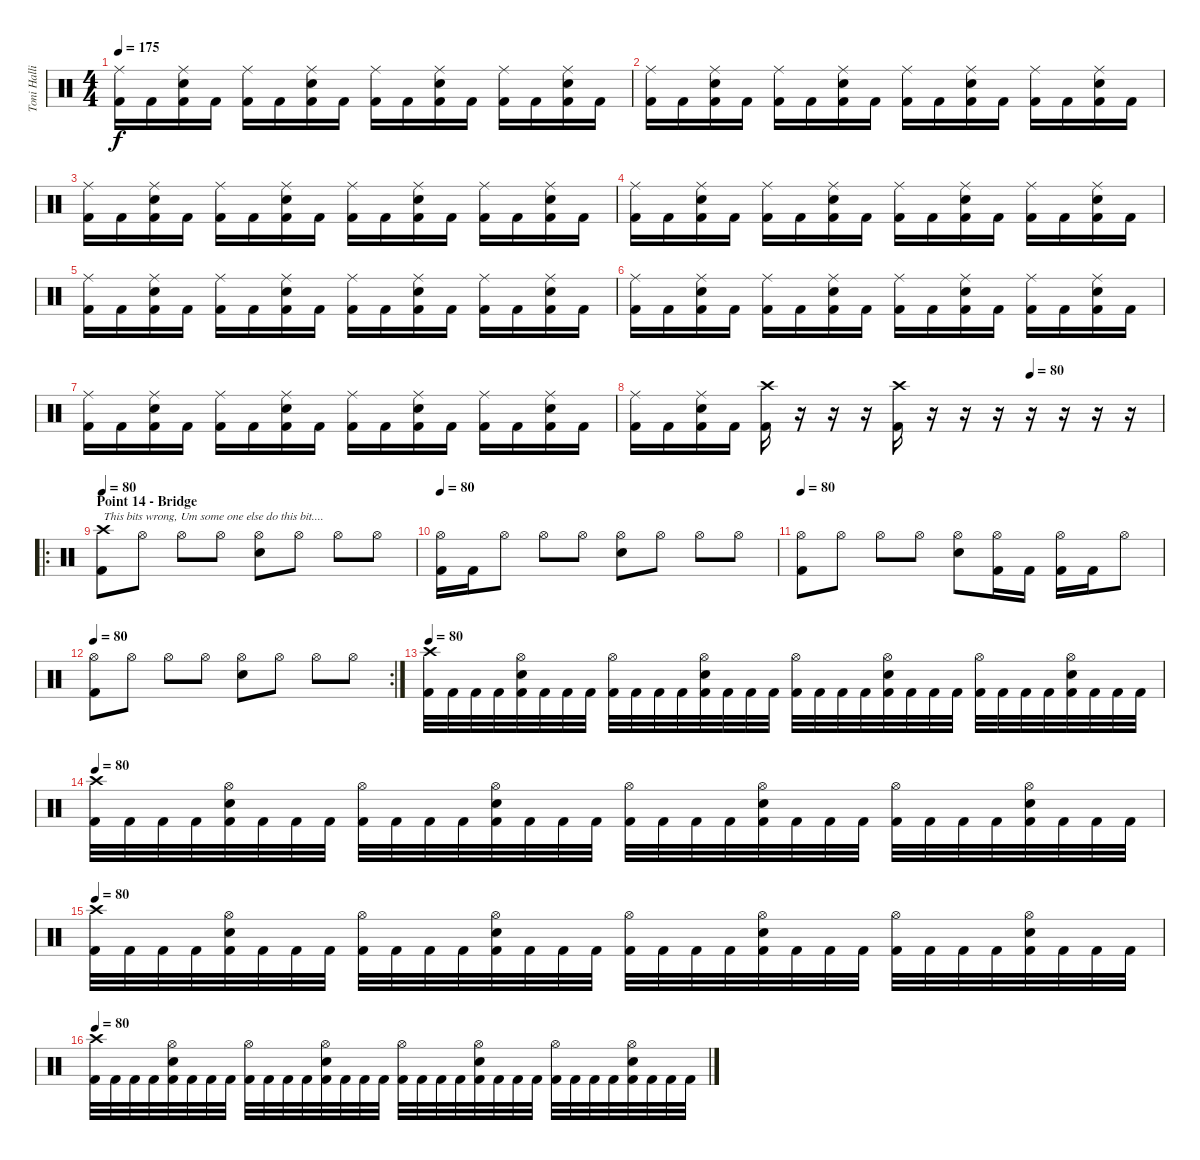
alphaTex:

\track ("Toni Hallio" "Toni Halli") {instrument percussion}
\staff {score}
\articulation defaults
\ts (4 4)
\tempo 175
\clef neutral
\ks c
("Ride (middle)" "Kick (hit) 2").16{dy f} "Kick (hit) 2".16 ("Ride (middle)" "Snare (hit) 2" "Kick (hit) 2").16 "Kick (hit) 2".16 ("Ride (middle)" "Kick (hit) 2").16 "Kick (hit) 2".16 ("Ride (middle)" "Snare (hit) 2" "Kick (hit) 2").16 "Kick (hit) 2".16 ("Ride (middle)" "Kick (hit) 2").16 "Kick (hit) 2".16 ("Ride (middle)" "Snare (hit) 2" "Kick (hit) 2").16 "Kick (hit) 2".16 ("Ride (middle)" "Kick (hit) 2").16 "Kick (hit) 2".16 ("Ride (middle)" "Snare (hit) 2" "Kick (hit) 2").16 "Kick (hit) 2".16 |
("Ride (middle)" "Kick (hit) 2").16 "Kick (hit) 2".16 ("Ride (middle)" "Snare (hit) 2" "Kick (hit) 2").16 "Kick (hit) 2".16 ("Ride (middle)" "Kick (hit) 2").16 "Kick (hit) 2".16 ("Ride (middle)" "Snare (hit) 2" "Kick (hit) 2").16 "Kick (hit) 2".16 ("Ride (middle)" "Kick (hit) 2").16 "Kick (hit) 2".16 ("Ride (middle)" "Snare (hit) 2" "Kick (hit) 2").16 "Kick (hit) 2".16 ("Ride (middle)" "Kick (hit) 2").16 "Kick (hit) 2".16 ("Ride (middle)" "Snare (hit) 2" "Kick (hit) 2").16 "Kick (hit) 2".16 |
("Ride (middle)" "Kick (hit) 2").16 "Kick (hit) 2".16 ("Ride (middle)" "Snare (hit) 2" "Kick (hit) 2").16 "Kick (hit) 2".16 ("Ride (middle)" "Kick (hit) 2").16 "Kick (hit) 2".16 ("Ride (middle)" "Snare (hit) 2" "Kick (hit) 2").16 "Kick (hit) 2".16 ("Ride (middle)" "Kick (hit) 2").16 "Kick (hit) 2".16 ("Ride (middle)" "Snare (hit) 2" "Kick (hit) 2").16 "Kick (hit) 2".16 ("Ride (middle)" "Kick (hit) 2").16 "Kick (hit) 2".16 ("Ride (middle)" "Snare (hit) 2" "Kick (hit) 2").16 "Kick (hit) 2".16 |
("Ride (middle)" "Kick (hit) 2").16 "Kick (hit) 2".16 ("Ride (middle)" "Snare (hit) 2" "Kick (hit) 2").16 "Kick (hit) 2".16 ("Ride (middle)" "Kick (hit) 2").16 "Kick (hit) 2".16 ("Ride (middle)" "Snare (hit) 2" "Kick (hit) 2").16 "Kick (hit) 2".16 ("Ride (middle)" "Kick (hit) 2").16 "Kick (hit) 2".16 ("Ride (middle)" "Snare (hit) 2" "Kick (hit) 2").16 "Kick (hit) 2".16 ("Ride (middle)" "Kick (hit) 2").16 "Kick (hit) 2".16 ("Ride (middle)" "Snare (hit) 2" "Kick (hit) 2").16 "Kick (hit) 2".16 |
("Ride (middle)" "Kick (hit) 2").16 "Kick (hit) 2".16 ("Ride (middle)" "Snare (hit) 2" "Kick (hit) 2").16 "Kick (hit) 2".16 ("Ride (middle)" "Kick (hit) 2").16 "Kick (hit) 2".16 ("Ride (middle)" "Snare (hit) 2" "Kick (hit) 2").16 "Kick (hit) 2".16 ("Ride (middle)" "Kick (hit) 2").16 "Kick (hit) 2".16 ("Ride (middle)" "Snare (hit) 2" "Kick (hit) 2").16 "Kick (hit) 2".16 ("Ride (middle)" "Kick (hit) 2").16 "Kick (hit) 2".16 ("Ride (middle)" "Snare (hit) 2" "Kick (hit) 2").16 "Kick (hit) 2".16 |
("Ride (middle)" "Kick (hit) 2").16 "Kick (hit) 2".16 ("Ride (middle)" "Snare (hit) 2" "Kick (hit) 2").16 "Kick (hit) 2".16 ("Ride (middle)" "Kick (hit) 2").16 "Kick (hit) 2".16 ("Ride (middle)" "Snare (hit) 2" "Kick (hit) 2").16 "Kick (hit) 2".16 ("Ride (middle)" "Kick (hit) 2").16 "Kick (hit) 2".16 ("Ride (middle)" "Snare (hit) 2" "Kick (hit) 2").16 "Kick (hit) 2".16 ("Ride (middle)" "Kick (hit) 2").16 "Kick (hit) 2".16 ("Ride (middle)" "Snare (hit) 2" "Kick (hit) 2").16 "Kick (hit) 2".16 |
("Ride (middle)" "Kick (hit) 2").16 "Kick (hit) 2".16 ("Ride (middle)" "Snare (hit) 2" "Kick (hit) 2").16 "Kick (hit) 2".16 ("Ride (middle)" "Kick (hit) 2").16 "Kick (hit) 2".16 ("Ride (middle)" "Snare (hit) 2" "Kick (hit) 2").16 "Kick (hit) 2".16 ("Ride (middle)" "Kick (hit) 2").16 "Kick (hit) 2".16 ("Ride (middle)" "Snare (hit) 2" "Kick (hit) 2").16 "Kick (hit) 2".16 ("Ride (middle)" "Kick (hit) 2").16 "Kick (hit) 2".16 ("Ride (middle)" "Snare (hit) 2" "Kick (hit) 2").16 "Kick (hit) 2".16 |
\tempo (80 0.75)
("Ride (middle)" "Kick (hit) 2").16 "Kick (hit) 2".16 ("Ride (middle)" "Snare (hit) 2" "Kick (hit) 2").16 "Kick (hit) 2".16 ("Crash high (hit)" "Kick (hit) 2").16 r.16 r.16 r.16 ("Crash high (hit)" "Kick (hit) 2").16 r.16 r.16 r.16 r.16 r.16 r.16 r.16 |
\ro
\section ("" "Point 14 - Bridge")
\tempo 80
("Crash high (hit)" "Kick (hit) 2").8{txt "This bits wrong, Um some one else do this bit...."} "Hi-Hat (open)".8 "Hi-Hat (open)".8 "Hi-Hat (open)".8 ("Hi-Hat (open)" "Snare (hit) 2").8 "Hi-Hat (open)".8 "Hi-Hat (open)".8 "Hi-Hat (open)".8 |
\tempo 80
("Hi-Hat (open)" "Kick (hit) 2").16 "Kick (hit) 2".16 "Hi-Hat (open)".8 "Hi-Hat (open)".8 "Hi-Hat (open)".8 ("Hi-Hat (open)" "Snare (hit) 2").8 "Hi-Hat (open)".8 "Hi-Hat (open)".8 "Hi-Hat (open)".8 |
\tempo 80
("Hi-Hat (open)" "Kick (hit) 2").8 "Hi-Hat (open)".8 "Hi-Hat (open)".8 "Hi-Hat (open)".8 ("Hi-Hat (open)" "Snare (hit) 2").8 ("Hi-Hat (open)" "Kick (hit) 2").16 "Kick (hit) 2".16 ("Hi-Hat (open)" "Kick (hit) 2").16 "Kick (hit) 2".16 "Hi-Hat (open)".8 |
\rc 2
\tempo 80
("Hi-Hat (open)" "Kick (hit) 2").8 "Hi-Hat (open)".8 "Hi-Hat (open)".8 "Hi-Hat (open)".8 ("Hi-Hat (open)" "Snare (hit) 2").8 "Hi-Hat (open)".8 "Hi-Hat (open)".8 "Hi-Hat (open)".8 |
\tempo 80
("Crash high (hit)" "Kick (hit) 2").32 "Kick (hit) 2".32 "Kick (hit) 2".32 "Kick (hit) 2".32 ("Hi-Hat (open)" "Snare (hit) 2" "Kick (hit) 2").32 "Kick (hit) 2".32 "Kick (hit) 2".32 "Kick (hit) 2".32 ("Hi-Hat (open)" "Kick (hit) 2").32 "Kick (hit) 2".32 "Kick (hit) 2".32 "Kick (hit) 2".32 ("Hi-Hat (open)" "Snare (hit) 2" "Kick (hit) 2").32 "Kick (hit) 2".32 "Kick (hit) 2".32 "Kick (hit) 2".32 ("Hi-Hat (open)" "Kick (hit) 2").32 "Kick (hit) 2".32 "Kick (hit) 2".32 "Kick (hit) 2".32 ("Hi-Hat (open)" "Snare (hit) 2" "Kick (hit) 2").32 "Kick (hit) 2".32 "Kick (hit) 2".32 "Kick (hit) 2".32 ("Hi-Hat (open)" "Kick (hit) 2").32 "Kick (hit) 2".32 "Kick (hit) 2".32 "Kick (hit) 2".32 ("Hi-Hat (open)" "Snare (hit) 2" "Kick (hit) 2").32 "Kick (hit) 2".32 "Kick (hit) 2".32 "Kick (hit) 2".32 |
\tempo 80
("Crash high (hit)" "Kick (hit) 2").32 "Kick (hit) 2".32 "Kick (hit) 2".32 "Kick (hit) 2".32 ("Hi-Hat (open)" "Snare (hit) 2" "Kick (hit) 2").32 "Kick (hit) 2".32 "Kick (hit) 2".32 "Kick (hit) 2".32 ("Hi-Hat (open)" "Kick (hit) 2").32 "Kick (hit) 2".32 "Kick (hit) 2".32 "Kick (hit) 2".32 ("Hi-Hat (open)" "Snare (hit) 2" "Kick (hit) 2").32 "Kick (hit) 2".32 "Kick (hit) 2".32 "Kick (hit) 2".32 ("Hi-Hat (open)" "Kick (hit) 2").32 "Kick (hit) 2".32 "Kick (hit) 2".32 "Kick (hit) 2".32 ("Hi-Hat (open)" "Snare (hit) 2" "Kick (hit) 2").32 "Kick (hit) 2".32 "Kick (hit) 2".32 "Kick (hit) 2".32 ("Hi-Hat (open)" "Kick (hit) 2").32 "Kick (hit) 2".32 "Kick (hit) 2".32 "Kick (hit) 2".32 ("Hi-Hat (open)" "Snare (hit) 2" "Kick (hit) 2").32 "Kick (hit) 2".32 "Kick (hit) 2".32 "Kick (hit) 2".32 |
\tempo 80
("Crash high (hit)" "Kick (hit) 2").32 "Kick (hit) 2".32 "Kick (hit) 2".32 "Kick (hit) 2".32 ("Hi-Hat (open)" "Snare (hit) 2" "Kick (hit) 2").32 "Kick (hit) 2".32 "Kick (hit) 2".32 "Kick (hit) 2".32 ("Hi-Hat (open)" "Kick (hit) 2").32 "Kick (hit) 2".32 "Kick (hit) 2".32 "Kick (hit) 2".32 ("Hi-Hat (open)" "Snare (hit) 2" "Kick (hit) 2").32 "Kick (hit) 2".32 "Kick (hit) 2".32 "Kick (hit) 2".32 ("Hi-Hat (open)" "Kick (hit) 2").32 "Kick (hit) 2".32 "Kick (hit) 2".32 "Kick (hit) 2".32 ("Hi-Hat (open)" "Snare (hit) 2" "Kick (hit) 2").32 "Kick (hit) 2".32 "Kick (hit) 2".32 "Kick (hit) 2".32 ("Hi-Hat (open)" "Kick (hit) 2").32 "Kick (hit) 2".32 "Kick (hit) 2".32 "Kick (hit) 2".32 ("Hi-Hat (open)" "Snare (hit) 2" "Kick (hit) 2").32 "Kick (hit) 2".32 "Kick (hit) 2".32 "Kick (hit) 2".32 |
\tempo 80
("Crash high (hit)" "Kick (hit) 2").32 "Kick (hit) 2".32 "Kick (hit) 2".32 "Kick (hit) 2".32 ("Hi-Hat (open)" "Snare (hit) 2" "Kick (hit) 2").32 "Kick (hit) 2".32 "Kick (hit) 2".32 "Kick (hit) 2".32 ("Hi-Hat (open)" "Kick (hit) 2").32 "Kick (hit) 2".32 "Kick (hit) 2".32 "Kick (hit) 2".32 ("Hi-Hat (open)" "Snare (hit) 2" "Kick (hit) 2").32 "Kick (hit) 2".32 "Kick (hit) 2".32 "Kick (hit) 2".32 ("Hi-Hat (open)" "Kick (hit) 2").32 "Kick (hit) 2".32 "Kick (hit) 2".32 "Kick (hit) 2".32 ("Hi-Hat (open)" "Snare (hit) 2" "Kick (hit) 2").32 "Kick (hit) 2".32 "Kick (hit) 2".32 "Kick (hit) 2".32 ("Hi-Hat (open)" "Kick (hit) 2").32 "Kick (hit) 2".32 "Kick (hit) 2".32 "Kick (hit) 2".32 ("Hi-Hat (open)" "Snare (hit) 2" "Kick (hit) 2").32 "Kick (hit) 2".32 "Kick (hit) 2".32 "Kick (hit) 2".32
